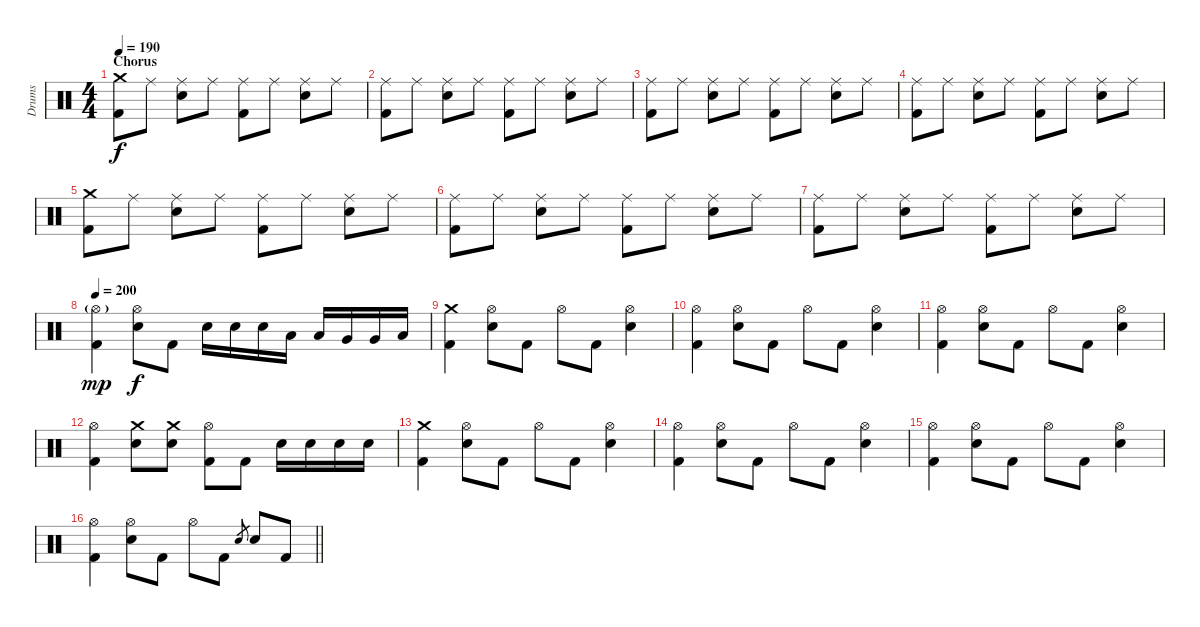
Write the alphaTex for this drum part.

\track ("Drums" "Drums") {instrument percussion}
\staff {score}
\articulation defaults
\ts (4 4)
\section ("" "Chorus")
\tempo 190
\clef neutral
\ks c
("Crash medium (hit)" "Kick (hit) 2").8{dy f} "Ride (middle)".8 ("Ride (middle)" "Electric Snare (hit)").8 "Ride (middle)".8 ("Ride (middle)" "Kick (hit) 2").8 "Ride (middle)".8 ("Ride (middle)" "Electric Snare (hit)").8 "Ride (middle)".8 |
("Ride (middle)" "Kick (hit) 2").8 "Ride (middle)".8 ("Ride (middle)" "Electric Snare (hit)").8 "Ride (middle)".8 ("Ride (middle)" "Kick (hit) 2").8 "Ride (middle)".8 ("Ride (middle)" "Electric Snare (hit)").8 "Ride (middle)".8 |
("Ride (middle)" "Kick (hit) 2").8 "Ride (middle)".8 ("Ride (middle)" "Electric Snare (hit)").8 "Ride (middle)".8 ("Ride (middle)" "Kick (hit) 2").8 "Ride (middle)".8 ("Ride (middle)" "Electric Snare (hit)").8 "Ride (middle)".8 |
("Ride (middle)" "Kick (hit) 2").8 "Ride (middle)".8 ("Ride (middle)" "Electric Snare (hit)").8 "Ride (middle)".8 ("Ride (middle)" "Kick (hit) 2").8 "Ride (middle)".8 ("Ride (middle)" "Electric Snare (hit)").8 "Ride (middle)".8 |
("Crash medium (hit)" "Kick (hit) 2").8 "Ride (middle)".8 ("Ride (middle)" "Electric Snare (hit)").8 "Ride (middle)".8 ("Ride (middle)" "Kick (hit) 2").8 "Ride (middle)".8 ("Ride (middle)" "Electric Snare (hit)").8 "Ride (middle)".8 |
("Ride (middle)" "Kick (hit) 2").8 "Ride (middle)".8 ("Ride (middle)" "Electric Snare (hit)").8 "Ride (middle)".8 ("Ride (middle)" "Kick (hit) 2").8 "Ride (middle)".8 ("Ride (middle)" "Electric Snare (hit)").8 "Ride (middle)".8 |
("Ride (middle)" "Kick (hit) 2").8 "Ride (middle)".8 ("Ride (middle)" "Electric Snare (hit)").8 "Ride (middle)".8 ("Ride (middle)" "Kick (hit) 2").8 "Ride (middle)".8 ("Ride (middle)" "Electric Snare (hit)").8 "Ride (middle)".8 |
\tempo 200
("Hi-Hat (open)"{g} "Kick (hit) 2").4{dy mp} ("Hi-Hat (open)" "Electric Snare (hit)").8{dy f} "Kick (hit) 2".8 "Electric Snare (hit)".16 "Electric Snare (hit)".16 "Electric Snare (hit)".16 "Low Tom (hit)".16 "Low Tom (hit)".16 "Very Low Tom (hit)".16 "Very Low Tom (hit)".16 "Low Floor Tom (hit)".16 |
("Crash medium (hit)" "Kick (hit) 2").4 ("Hi-Hat (open)" "Electric Snare (hit)").8 "Kick (hit) 2".8 "Hi-Hat (open)".8 "Kick (hit) 2".8 ("Hi-Hat (open)" "Electric Snare (hit)").4 |
("Hi-Hat (open)" "Kick (hit) 2").4 ("Hi-Hat (open)" "Electric Snare (hit)").8 "Kick (hit) 2".8 "Hi-Hat (open)".8 "Kick (hit) 2".8 ("Hi-Hat (open)" "Electric Snare (hit)").4 |
("Hi-Hat (open)" "Kick (hit) 2").4 ("Hi-Hat (open)" "Electric Snare (hit)").8 "Kick (hit) 2".8 "Hi-Hat (open)".8 "Kick (hit) 2".8 ("Hi-Hat (open)" "Electric Snare (hit)").4 |
("Hi-Hat (open)" "Kick (hit) 2").4 ("Crash medium (hit)" "Electric Snare (hit)").8 ("Crash medium (hit)" "Electric Snare (hit)").8 ("Hi-Hat (open)" "Kick (hit) 2").8 "Kick (hit) 2".8 "Electric Snare (hit)".16 "Electric Snare (hit)".16 "Electric Snare (hit)".16 "Electric Snare (hit)".16 |
("Crash medium (hit)" "Kick (hit) 2").4 ("Hi-Hat (open)" "Electric Snare (hit)").8 "Kick (hit) 2".8 "Hi-Hat (open)".8 "Kick (hit) 2".8 ("Hi-Hat (open)" "Electric Snare (hit)").4 |
("Hi-Hat (open)" "Kick (hit) 2").4 ("Hi-Hat (open)" "Electric Snare (hit)").8 "Kick (hit) 2".8 "Hi-Hat (open)".8 "Kick (hit) 2".8 ("Hi-Hat (open)" "Electric Snare (hit)").4 |
("Hi-Hat (open)" "Kick (hit) 2").4 ("Hi-Hat (open)" "Electric Snare (hit)").8 "Kick (hit) 2".8 "Hi-Hat (open)".8 "Kick (hit) 2".8 ("Hi-Hat (open)" "Electric Snare (hit)").4 |
\barLineRight lightlight
("Hi-Hat (open)" "Kick (hit) 2").4 ("Hi-Hat (open)" "Electric Snare (hit)").8 "Kick (hit) 2".8 "Hi-Hat (open)".8 "Kick (hit) 2".8 "Electric Snare (hit)".8{gr} "Electric Snare (hit)".8 "Kick (hit) 2".8
